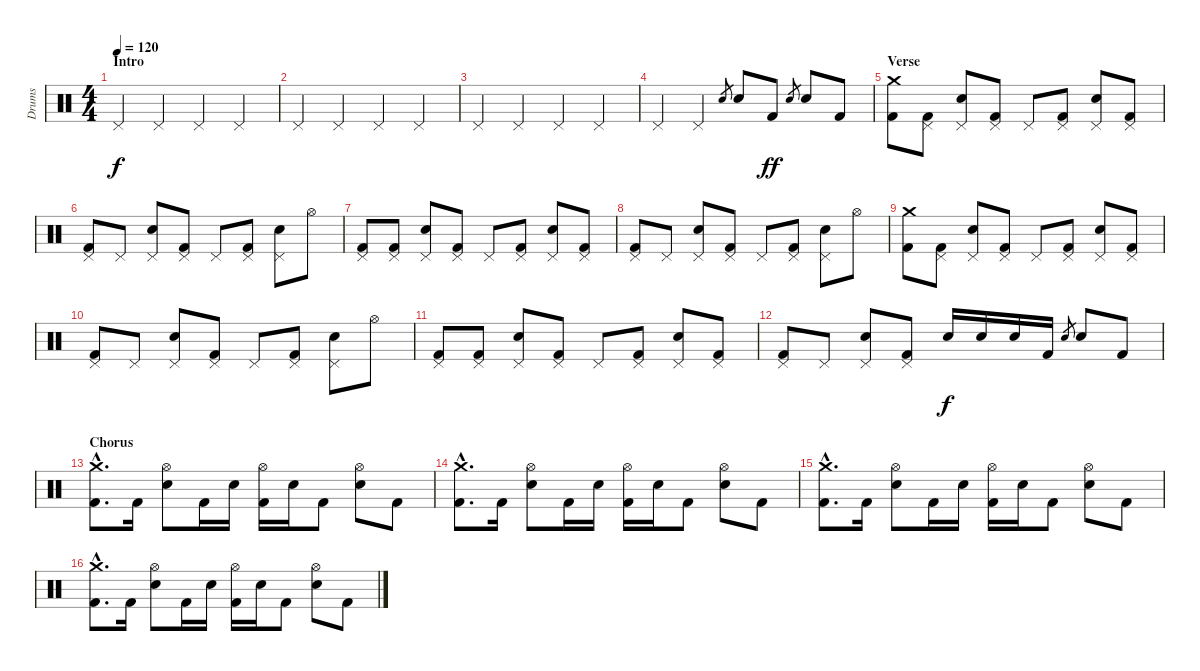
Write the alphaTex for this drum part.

\track ("Drums" "Drums") {instrument percussion}
\staff {score}
\articulation defaults
\ts (4 4)
\section ("" "Intro")
\tempo 120
\clef neutral
\ks c "Pedal Hi-Hat (hit)".4{dy f} "Pedal Hi-Hat (hit)".4 "Pedal Hi-Hat (hit)".4 "Pedal Hi-Hat (hit)".4
|
"Pedal Hi-Hat (hit)".4 "Pedal Hi-Hat (hit)".4 "Pedal Hi-Hat (hit)".4 "Pedal Hi-Hat (hit)".4 |
"Pedal Hi-Hat (hit)".4 "Pedal Hi-Hat (hit)".4 "Pedal Hi-Hat (hit)".4 "Pedal Hi-Hat (hit)".4 |
"Pedal Hi-Hat (hit)".4 "Pedal Hi-Hat (hit)".4 "Electric Snare (hit)".8{gr} "Electric Snare (hit)".8 "Kick (hit) 2".8{dy ff} "Electric Snare (hit)".8{gr} "Electric Snare (hit)".8 "Kick (hit) 2".8 |
\section ("" "Verse")
("Crash medium (hit)" "Kick (hit) 2").8 ("Pedal Hi-Hat (hit)" "Kick (hit) 2").8 ("Pedal Hi-Hat (hit)" "Electric Snare (hit)").8 ("Pedal Hi-Hat (hit)" "Kick (hit) 2").8 "Pedal Hi-Hat (hit)".8 ("Pedal Hi-Hat (hit)" "Kick (hit) 2").8 ("Pedal Hi-Hat (hit)" "Electric Snare (hit)").8 ("Pedal Hi-Hat (hit)" "Kick (hit) 2").8 |
("Pedal Hi-Hat (hit)" "Kick (hit) 2").8 "Pedal Hi-Hat (hit)".8 ("Pedal Hi-Hat (hit)" "Electric Snare (hit)").8 ("Pedal Hi-Hat (hit)" "Kick (hit) 2").8 "Pedal Hi-Hat (hit)".8 ("Pedal Hi-Hat (hit)" "Kick (hit) 2").8 ("Pedal Hi-Hat (hit)" "Electric Snare (hit)").8 "Hi-Hat (open)".8 |
("Pedal Hi-Hat (hit)" "Kick (hit) 2").8 ("Pedal Hi-Hat (hit)" "Kick (hit) 2").8 ("Pedal Hi-Hat (hit)" "Electric Snare (hit)").8 ("Pedal Hi-Hat (hit)" "Kick (hit) 2").8 "Pedal Hi-Hat (hit)".8 ("Pedal Hi-Hat (hit)" "Kick (hit) 2").8 ("Pedal Hi-Hat (hit)" "Electric Snare (hit)").8 ("Pedal Hi-Hat (hit)" "Kick (hit) 2").8 |
("Pedal Hi-Hat (hit)" "Kick (hit) 2").8 "Pedal Hi-Hat (hit)".8 ("Pedal Hi-Hat (hit)" "Electric Snare (hit)").8 ("Pedal Hi-Hat (hit)" "Kick (hit) 2").8 "Pedal Hi-Hat (hit)".8 ("Pedal Hi-Hat (hit)" "Kick (hit) 2").8 ("Pedal Hi-Hat (hit)" "Electric Snare (hit)").8 "Hi-Hat (open)".8 |
("Crash medium (hit)" "Kick (hit) 2").8 ("Pedal Hi-Hat (hit)" "Kick (hit) 2").8 ("Pedal Hi-Hat (hit)" "Electric Snare (hit)").8 ("Pedal Hi-Hat (hit)" "Kick (hit) 2").8 "Pedal Hi-Hat (hit)".8 ("Pedal Hi-Hat (hit)" "Kick (hit) 2").8 ("Pedal Hi-Hat (hit)" "Electric Snare (hit)").8 ("Pedal Hi-Hat (hit)" "Kick (hit) 2").8 |
("Pedal Hi-Hat (hit)" "Kick (hit) 2").8 "Pedal Hi-Hat (hit)".8 ("Pedal Hi-Hat (hit)" "Electric Snare (hit)").8 ("Pedal Hi-Hat (hit)" "Kick (hit) 2").8 "Pedal Hi-Hat (hit)".8 ("Pedal Hi-Hat (hit)" "Kick (hit) 2").8 ("Pedal Hi-Hat (hit)" "Electric Snare (hit)").8 "Hi-Hat (open)".8 |
("Pedal Hi-Hat (hit)" "Kick (hit) 2").8 ("Pedal Hi-Hat (hit)" "Kick (hit) 2").8 ("Pedal Hi-Hat (hit)" "Electric Snare (hit)").8 ("Pedal Hi-Hat (hit)" "Kick (hit) 2").8 "Pedal Hi-Hat (hit)".8 ("Pedal Hi-Hat (hit)" "Kick (hit) 2").8 ("Pedal Hi-Hat (hit)" "Electric Snare (hit)").8 ("Pedal Hi-Hat (hit)" "Kick (hit) 2").8 |
("Pedal Hi-Hat (hit)" "Kick (hit) 2").8 "Pedal Hi-Hat (hit)".8 ("Pedal Hi-Hat (hit)" "Electric Snare (hit)").8 ("Pedal Hi-Hat (hit)" "Kick (hit) 2").8 "Electric Snare (hit)".16{dy f} "Electric Snare (hit)".16 "Electric Snare (hit)".16 "Kick (hit) 2".16 "Electric Snare (hit)".8{gr} "Electric Snare (hit)".8 "Kick (hit) 2".8 |
\section ("" "Chorus")
("Crash medium (hit)"{hac} "Kick (hit) 2"{hac}).8{d} "Kick (hit) 2".16 ("Hi-Hat (open)" "Electric Snare (hit)").8 "Kick (hit) 2".16 "Electric Snare (hit)".16 ("Hi-Hat (open)" "Kick (hit) 2").16 "Electric Snare (hit)".16 "Kick (hit) 2".8 ("Hi-Hat (open)" "Electric Snare (hit)").8 "Kick (hit) 2".8 |
("Crash medium (hit)"{hac} "Kick (hit) 2"{hac}).8{d} "Kick (hit) 2".16 ("Hi-Hat (open)" "Electric Snare (hit)").8 "Kick (hit) 2".16 "Electric Snare (hit)".16 ("Hi-Hat (open)" "Kick (hit) 2").16 "Electric Snare (hit)".16 "Kick (hit) 2".8 ("Hi-Hat (open)" "Electric Snare (hit)").8 "Kick (hit) 2".8 |
("Crash medium (hit)"{hac} "Kick (hit) 2"{hac}).8{d} "Kick (hit) 2".16 ("Hi-Hat (open)" "Electric Snare (hit)").8 "Kick (hit) 2".16 "Electric Snare (hit)".16 ("Hi-Hat (open)" "Kick (hit) 2").16 "Electric Snare (hit)".16 "Kick (hit) 2".8 ("Hi-Hat (open)" "Electric Snare (hit)").8 "Kick (hit) 2".8 |
("Crash medium (hit)"{hac} "Kick (hit) 2"{hac}).8{d} "Kick (hit) 2".16 ("Hi-Hat (open)" "Electric Snare (hit)").8 "Kick (hit) 2".16 "Electric Snare (hit)".16 ("Hi-Hat (open)" "Kick (hit) 2").16 "Electric Snare (hit)".16 "Kick (hit) 2".8 ("Hi-Hat (open)" "Electric Snare (hit)").8 "Kick (hit) 2".8
